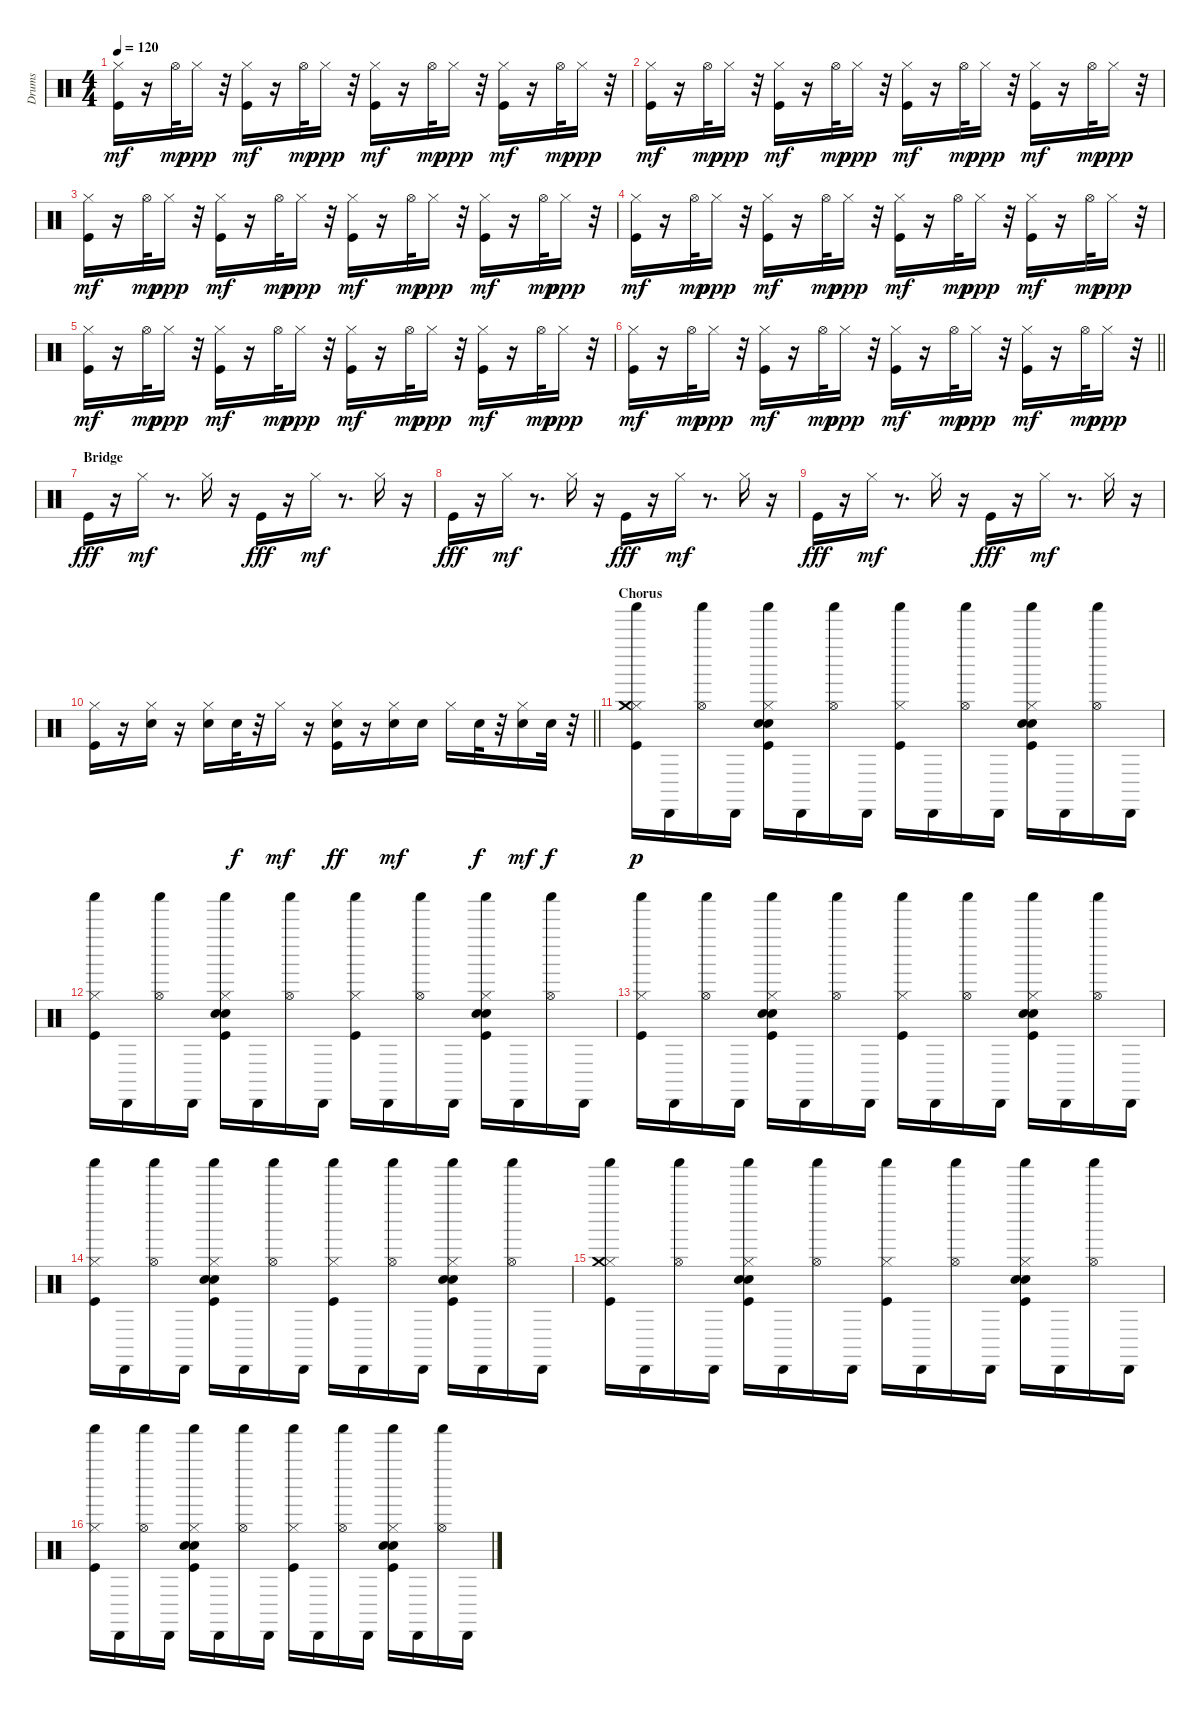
\track ("Drums" "Drums") {instrument percussion}
\staff {score}
\articulation defaults
\ts (4 4)
\tempo 120
\clef neutral
\ks c
("Kick (hit)" "Hi-Hat (closed)").16{dy mf} r.16 "Hi-Hat (open)".32{dy mp} "Hi-Hat (closed)".16{dy ppp} r.32 ("Kick (hit)" "Hi-Hat (closed)").16{dy mf} r.16 "Hi-Hat (open)".32{dy mp} "Hi-Hat (closed)".16{dy ppp} r.32 ("Kick (hit)" "Hi-Hat (closed)").16{dy mf} r.16 "Hi-Hat (open)".32{dy mp} "Hi-Hat (closed)".16{dy ppp} r.32 ("Kick (hit)" "Hi-Hat (closed)").16{dy mf} r.16 "Hi-Hat (open)".32{dy mp} "Hi-Hat (closed)".16{dy ppp} r.32 |
("Kick (hit)" "Hi-Hat (closed)").16{dy mf} r.16 "Hi-Hat (open)".32{dy mp} "Hi-Hat (closed)".16{dy ppp} r.32 ("Kick (hit)" "Hi-Hat (closed)").16{dy mf} r.16 "Hi-Hat (open)".32{dy mp} "Hi-Hat (closed)".16{dy ppp} r.32 ("Kick (hit)" "Hi-Hat (closed)").16{dy mf} r.16 "Hi-Hat (open)".32{dy mp} "Hi-Hat (closed)".16{dy ppp} r.32 ("Kick (hit)" "Hi-Hat (closed)").16{dy mf} r.16 "Hi-Hat (open)".32{dy mp} "Hi-Hat (closed)".16{dy ppp} r.32 |
("Kick (hit)" "Hi-Hat (closed)").16{dy mf} r.16 "Hi-Hat (open)".32{dy mp} "Hi-Hat (closed)".16{dy ppp} r.32 ("Kick (hit)" "Hi-Hat (closed)").16{dy mf} r.16 "Hi-Hat (open)".32{dy mp} "Hi-Hat (closed)".16{dy ppp} r.32 ("Kick (hit)" "Hi-Hat (closed)").16{dy mf} r.16 "Hi-Hat (open)".32{dy mp} "Hi-Hat (closed)".16{dy ppp} r.32 ("Kick (hit)" "Hi-Hat (closed)").16{dy mf} r.16 "Hi-Hat (open)".32{dy mp} "Hi-Hat (closed)".16{dy ppp} r.32 |
("Kick (hit)" "Hi-Hat (closed)").16{dy mf} r.16 "Hi-Hat (open)".32{dy mp} "Hi-Hat (closed)".16{dy ppp} r.32 ("Kick (hit)" "Hi-Hat (closed)").16{dy mf} r.16 "Hi-Hat (open)".32{dy mp} "Hi-Hat (closed)".16{dy ppp} r.32 ("Kick (hit)" "Hi-Hat (closed)").16{dy mf} r.16 "Hi-Hat (open)".32{dy mp} "Hi-Hat (closed)".16{dy ppp} r.32 ("Kick (hit)" "Hi-Hat (closed)").16{dy mf} r.16 "Hi-Hat (open)".32{dy mp} "Hi-Hat (closed)".16{dy ppp} r.32 |
("Kick (hit)" "Hi-Hat (closed)").16{dy mf} r.16 "Hi-Hat (open)".32{dy mp} "Hi-Hat (closed)".16{dy ppp} r.32 ("Kick (hit)" "Hi-Hat (closed)").16{dy mf} r.16 "Hi-Hat (open)".32{dy mp} "Hi-Hat (closed)".16{dy ppp} r.32 ("Kick (hit)" "Hi-Hat (closed)").16{dy mf} r.16 "Hi-Hat (open)".32{dy mp} "Hi-Hat (closed)".16{dy ppp} r.32 ("Kick (hit)" "Hi-Hat (closed)").16{dy mf} r.16 "Hi-Hat (open)".32{dy mp} "Hi-Hat (closed)".16{dy ppp} r.32 |
\barLineRight lightlight
("Kick (hit)" "Hi-Hat (closed)").16{dy mf} r.16 "Hi-Hat (open)".32{dy mp} "Hi-Hat (closed)".16{dy ppp} r.32 ("Kick (hit)" "Hi-Hat (closed)").16{dy mf} r.16 "Hi-Hat (open)".32{dy mp} "Hi-Hat (closed)".16{dy ppp} r.32 ("Kick (hit)" "Hi-Hat (closed)").16{dy mf} r.16 "Hi-Hat (open)".32{dy mp} "Hi-Hat (closed)".16{dy ppp} r.32 ("Kick (hit)" "Hi-Hat (closed)").16{dy mf} r.16 "Hi-Hat (open)".32{dy mp} "Hi-Hat (closed)".16{dy ppp} r.32 |
\section ("" "Bridge")
"Kick (hit)".16{dy fff} r.16 "Hi-Hat (closed)".16{dy mf} r.8{d} "Hi-Hat (closed)".16 r.16 "Kick (hit)".16{dy fff} r.16 "Hi-Hat (closed)".16{dy mf} r.8{d} "Hi-Hat (closed)".16 r.16 |
"Kick (hit)".16{dy fff} r.16 "Hi-Hat (closed)".16{dy mf} r.8{d} "Hi-Hat (closed)".16 r.16 "Kick (hit)".16{dy fff} r.16 "Hi-Hat (closed)".16{dy mf} r.8{d} "Hi-Hat (closed)".16 r.16 |
"Kick (hit)".16{dy fff} r.16 "Hi-Hat (closed)".16{dy mf} r.8{d} "Hi-Hat (closed)".16 r.16 "Kick (hit)".16{dy fff} r.16 "Hi-Hat (closed)".16{dy mf} r.8{d} "Hi-Hat (closed)".16 r.16 |
\barLineRight lightlight
("Kick (hit)" "Hi-Hat (closed)").16 r.16 ("Snare (hit) 2" "Hi-Hat (closed)").16 r.16 ("Hi-Hat (closed)" "Snare (hit) 2").16 "Snare (hit) 2".32{dy f} r.32 "Hi-Hat (closed)".16{dy mf} r.16 ("Hi-Hat (closed)" "Kick (hit)" "Snare (hit) 2").16{dy ff} r.16 ("Snare (hit) 2" "Hi-Hat (closed)").16{dy mf} "Snare (hit) 2".16 "Hi-Hat (closed)".16 "Snare (hit) 2".32{dy f} r.32 ("Snare (hit) 2" "Hi-Hat (closed)").16{dy mf} "Snare (hit) 2".32{dy f} r.32 |
\section ("" "Chorus")
("Kick (hit)" "Hi-Hat (closed)" "Crash medium (hit)" "Shaker (hit)").16{dy p} "Cabasa (hit)".16 ("Hi-Hat (open)" "Shaker (hit)").16 "Cabasa (hit)".16 ("Kick (hit)" "Snare (hit) 2" "Electric Snare (hit)" "Hi-Hat (closed)" "Shaker (hit)").16 "Cabasa (hit)".16 ("Hi-Hat (open)" "Shaker (hit)").16 "Cabasa (hit)".16 ("Kick (hit)" "Hi-Hat (closed)" "Shaker (hit)").16 "Cabasa (hit)".16 ("Hi-Hat (open)" "Shaker (hit)").16 "Cabasa (hit)".16 ("Kick (hit)" "Snare (hit) 2" "Electric Snare (hit)" "Hi-Hat (closed)" "Shaker (hit)").16 "Cabasa (hit)".16 ("Hi-Hat (open)" "Shaker (hit)").16 "Cabasa (hit)".16 |
("Kick (hit)" "Hi-Hat (closed)" "Shaker (hit)").16 "Cabasa (hit)".16 ("Hi-Hat (open)" "Shaker (hit)").16 "Cabasa (hit)".16 ("Kick (hit)" "Snare (hit) 2" "Electric Snare (hit)" "Hi-Hat (closed)" "Shaker (hit)").16 "Cabasa (hit)".16 ("Hi-Hat (open)" "Shaker (hit)").16 "Cabasa (hit)".16 ("Kick (hit)" "Hi-Hat (closed)" "Shaker (hit)").16 "Cabasa (hit)".16 ("Hi-Hat (open)" "Shaker (hit)").16 "Cabasa (hit)".16 ("Kick (hit)" "Snare (hit) 2" "Electric Snare (hit)" "Hi-Hat (closed)" "Shaker (hit)").16 "Cabasa (hit)".16 ("Hi-Hat (open)" "Shaker (hit)").16 "Cabasa (hit)".16 |
("Kick (hit)" "Hi-Hat (closed)" "Shaker (hit)").16 "Cabasa (hit)".16 ("Hi-Hat (open)" "Shaker (hit)").16 "Cabasa (hit)".16 ("Kick (hit)" "Snare (hit) 2" "Electric Snare (hit)" "Hi-Hat (closed)" "Shaker (hit)").16 "Cabasa (hit)".16 ("Hi-Hat (open)" "Shaker (hit)").16 "Cabasa (hit)".16 ("Kick (hit)" "Hi-Hat (closed)" "Shaker (hit)").16 "Cabasa (hit)".16 ("Hi-Hat (open)" "Shaker (hit)").16 "Cabasa (hit)".16 ("Kick (hit)" "Snare (hit) 2" "Electric Snare (hit)" "Hi-Hat (closed)" "Shaker (hit)").16 "Cabasa (hit)".16 ("Hi-Hat (open)" "Shaker (hit)").16 "Cabasa (hit)".16 |
("Kick (hit)" "Hi-Hat (closed)" "Shaker (hit)").16 "Cabasa (hit)".16 ("Hi-Hat (open)" "Shaker (hit)").16 "Cabasa (hit)".16 ("Kick (hit)" "Snare (hit) 2" "Electric Snare (hit)" "Hi-Hat (closed)" "Shaker (hit)").16 "Cabasa (hit)".16 ("Hi-Hat (open)" "Shaker (hit)").16 "Cabasa (hit)".16 ("Kick (hit)" "Hi-Hat (closed)" "Shaker (hit)").16 "Cabasa (hit)".16 ("Hi-Hat (open)" "Shaker (hit)").16 "Cabasa (hit)".16 ("Kick (hit)" "Snare (hit) 2" "Electric Snare (hit)" "Hi-Hat (closed)" "Shaker (hit)").16 "Cabasa (hit)".16 ("Hi-Hat (open)" "Shaker (hit)").16 "Cabasa (hit)".16 |
("Kick (hit)" "Hi-Hat (closed)" "Crash medium (hit)" "Shaker (hit)").16 "Cabasa (hit)".16 ("Hi-Hat (open)" "Shaker (hit)").16 "Cabasa (hit)".16 ("Kick (hit)" "Snare (hit) 2" "Electric Snare (hit)" "Hi-Hat (closed)" "Shaker (hit)").16 "Cabasa (hit)".16 ("Hi-Hat (open)" "Shaker (hit)").16 "Cabasa (hit)".16 ("Kick (hit)" "Hi-Hat (closed)" "Shaker (hit)").16 "Cabasa (hit)".16 ("Hi-Hat (open)" "Shaker (hit)").16 "Cabasa (hit)".16 ("Kick (hit)" "Snare (hit) 2" "Electric Snare (hit)" "Hi-Hat (closed)" "Shaker (hit)").16 "Cabasa (hit)".16 ("Hi-Hat (open)" "Shaker (hit)").16 "Cabasa (hit)".16 |
("Kick (hit)" "Hi-Hat (closed)" "Shaker (hit)").16 "Cabasa (hit)".16 ("Hi-Hat (open)" "Shaker (hit)").16 "Cabasa (hit)".16 ("Kick (hit)" "Snare (hit) 2" "Electric Snare (hit)" "Hi-Hat (closed)" "Shaker (hit)").16 "Cabasa (hit)".16 ("Hi-Hat (open)" "Shaker (hit)").16 "Cabasa (hit)".16 ("Kick (hit)" "Hi-Hat (closed)" "Shaker (hit)").16 "Cabasa (hit)".16 ("Hi-Hat (open)" "Shaker (hit)").16 "Cabasa (hit)".16 ("Kick (hit)" "Snare (hit) 2" "Electric Snare (hit)" "Hi-Hat (closed)" "Shaker (hit)").16 "Cabasa (hit)".16 ("Hi-Hat (open)" "Shaker (hit)").16 "Cabasa (hit)".16
